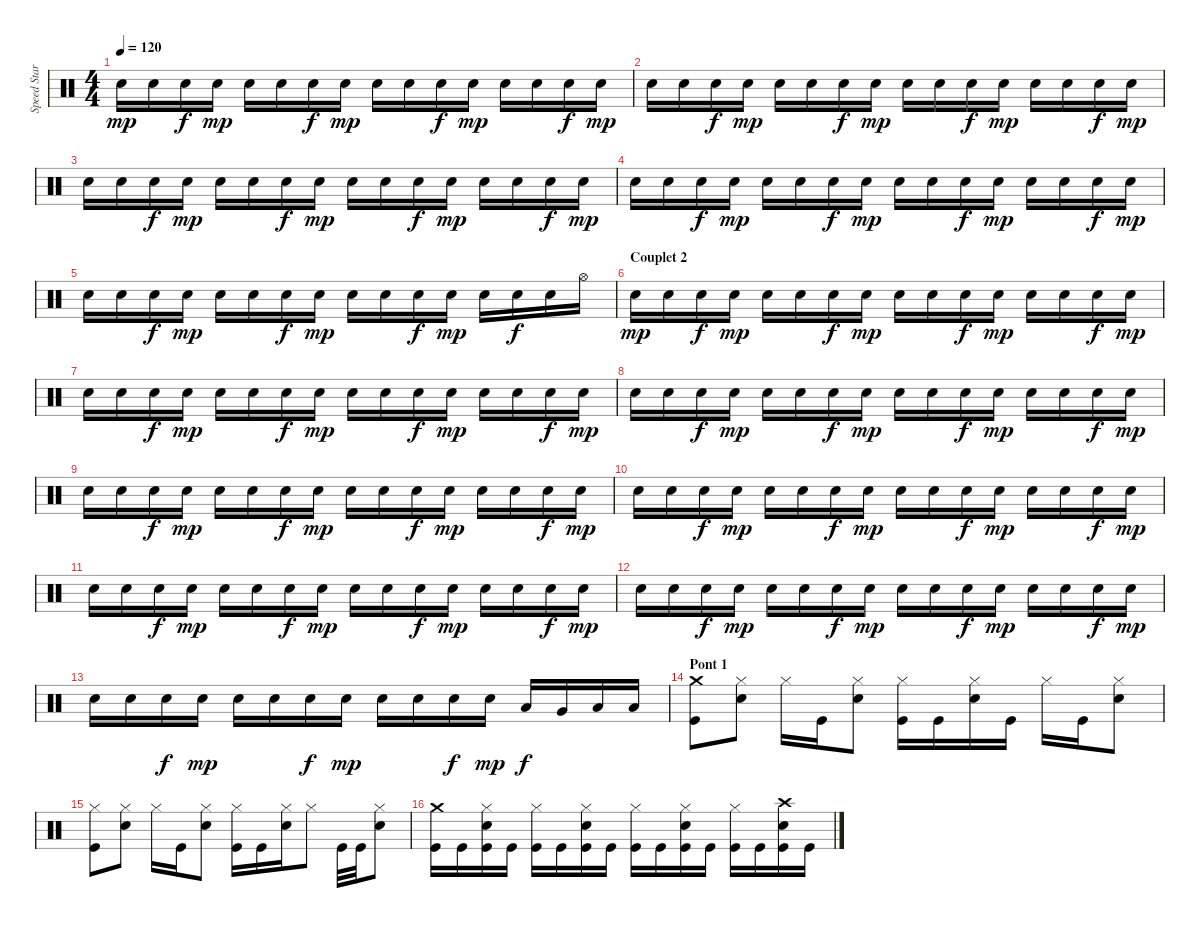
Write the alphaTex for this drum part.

\track ("Speed Star" "Speed Star") {instrument percussion}
\staff {score}
\articulation defaults
\ts (4 4)
\tempo 120
\clef neutral
\ks c "Snare (hit) 2".16{dy mp} "Snare (hit) 2".16 "Snare (hit) 2".16{dy f} "Snare (hit) 2".16{dy mp} "Snare (hit) 2".16 "Snare (hit) 2".16 "Snare (hit) 2".16{dy f} "Snare (hit) 2".16{dy mp} "Snare (hit) 2".16 "Snare (hit) 2".16 "Snare (hit) 2".16{dy f} "Snare (hit) 2".16{dy mp} "Snare (hit) 2".16 "Snare (hit) 2".16 "Snare (hit) 2".16{dy f} "Snare (hit) 2".16{dy mp}
|
"Snare (hit) 2".16 "Snare (hit) 2".16 "Snare (hit) 2".16{dy f} "Snare (hit) 2".16{dy mp} "Snare (hit) 2".16 "Snare (hit) 2".16 "Snare (hit) 2".16{dy f} "Snare (hit) 2".16{dy mp} "Snare (hit) 2".16 "Snare (hit) 2".16 "Snare (hit) 2".16{dy f} "Snare (hit) 2".16{dy mp} "Snare (hit) 2".16 "Snare (hit) 2".16 "Snare (hit) 2".16{dy f} "Snare (hit) 2".16{dy mp} |
"Snare (hit) 2".16 "Snare (hit) 2".16 "Snare (hit) 2".16{dy f} "Snare (hit) 2".16{dy mp} "Snare (hit) 2".16 "Snare (hit) 2".16 "Snare (hit) 2".16{dy f} "Snare (hit) 2".16{dy mp} "Snare (hit) 2".16 "Snare (hit) 2".16 "Snare (hit) 2".16{dy f} "Snare (hit) 2".16{dy mp} "Snare (hit) 2".16 "Snare (hit) 2".16 "Snare (hit) 2".16{dy f} "Snare (hit) 2".16{dy mp} |
"Snare (hit) 2".16 "Snare (hit) 2".16 "Snare (hit) 2".16{dy f} "Snare (hit) 2".16{dy mp} "Snare (hit) 2".16 "Snare (hit) 2".16 "Snare (hit) 2".16{dy f} "Snare (hit) 2".16{dy mp} "Snare (hit) 2".16 "Snare (hit) 2".16 "Snare (hit) 2".16{dy f} "Snare (hit) 2".16{dy mp} "Snare (hit) 2".16 "Snare (hit) 2".16 "Snare (hit) 2".16{dy f} "Snare (hit) 2".16{dy mp} |
"Snare (hit) 2".16 "Snare (hit) 2".16 "Snare (hit) 2".16{dy f} "Snare (hit) 2".16{dy mp} "Snare (hit) 2".16 "Snare (hit) 2".16 "Snare (hit) 2".16{dy f} "Snare (hit) 2".16{dy mp} "Snare (hit) 2".16 "Snare (hit) 2".16 "Snare (hit) 2".16{dy f} "Snare (hit) 2".16{dy mp} "Snare (hit) 2".16 "Snare (hit) 2".16{dy f} "Snare (hit) 2".16 "Hi-Hat (open)".16 |
\section ("" "Couplet 2")
"Snare (hit) 2".16{dy mp} "Snare (hit) 2".16 "Snare (hit) 2".16{dy f} "Snare (hit) 2".16{dy mp} "Snare (hit) 2".16 "Snare (hit) 2".16 "Snare (hit) 2".16{dy f} "Snare (hit) 2".16{dy mp} "Snare (hit) 2".16 "Snare (hit) 2".16 "Snare (hit) 2".16{dy f} "Snare (hit) 2".16{dy mp} "Snare (hit) 2".16 "Snare (hit) 2".16 "Snare (hit) 2".16{dy f} "Snare (hit) 2".16{dy mp} |
"Snare (hit) 2".16 "Snare (hit) 2".16 "Snare (hit) 2".16{dy f} "Snare (hit) 2".16{dy mp} "Snare (hit) 2".16 "Snare (hit) 2".16 "Snare (hit) 2".16{dy f} "Snare (hit) 2".16{dy mp} "Snare (hit) 2".16 "Snare (hit) 2".16 "Snare (hit) 2".16{dy f} "Snare (hit) 2".16{dy mp} "Snare (hit) 2".16 "Snare (hit) 2".16 "Snare (hit) 2".16{dy f} "Snare (hit) 2".16{dy mp} |
"Snare (hit) 2".16 "Snare (hit) 2".16 "Snare (hit) 2".16{dy f} "Snare (hit) 2".16{dy mp} "Snare (hit) 2".16 "Snare (hit) 2".16 "Snare (hit) 2".16{dy f} "Snare (hit) 2".16{dy mp} "Snare (hit) 2".16 "Snare (hit) 2".16 "Snare (hit) 2".16{dy f} "Snare (hit) 2".16{dy mp} "Snare (hit) 2".16 "Snare (hit) 2".16 "Snare (hit) 2".16{dy f} "Snare (hit) 2".16{dy mp} |
"Snare (hit) 2".16 "Snare (hit) 2".16 "Snare (hit) 2".16{dy f} "Snare (hit) 2".16{dy mp} "Snare (hit) 2".16 "Snare (hit) 2".16 "Snare (hit) 2".16{dy f} "Snare (hit) 2".16{dy mp} "Snare (hit) 2".16 "Snare (hit) 2".16 "Snare (hit) 2".16{dy f} "Snare (hit) 2".16{dy mp} "Snare (hit) 2".16 "Snare (hit) 2".16 "Snare (hit) 2".16{dy f} "Snare (hit) 2".16{dy mp} |
"Snare (hit) 2".16 "Snare (hit) 2".16 "Snare (hit) 2".16{dy f} "Snare (hit) 2".16{dy mp} "Snare (hit) 2".16 "Snare (hit) 2".16 "Snare (hit) 2".16{dy f} "Snare (hit) 2".16{dy mp} "Snare (hit) 2".16 "Snare (hit) 2".16 "Snare (hit) 2".16{dy f} "Snare (hit) 2".16{dy mp} "Snare (hit) 2".16 "Snare (hit) 2".16 "Snare (hit) 2".16{dy f} "Snare (hit) 2".16{dy mp} |
"Snare (hit) 2".16 "Snare (hit) 2".16 "Snare (hit) 2".16{dy f} "Snare (hit) 2".16{dy mp} "Snare (hit) 2".16 "Snare (hit) 2".16 "Snare (hit) 2".16{dy f} "Snare (hit) 2".16{dy mp} "Snare (hit) 2".16 "Snare (hit) 2".16 "Snare (hit) 2".16{dy f} "Snare (hit) 2".16{dy mp} "Snare (hit) 2".16 "Snare (hit) 2".16 "Snare (hit) 2".16{dy f} "Snare (hit) 2".16{dy mp} |
"Snare (hit) 2".16 "Snare (hit) 2".16 "Snare (hit) 2".16{dy f} "Snare (hit) 2".16{dy mp} "Snare (hit) 2".16 "Snare (hit) 2".16 "Snare (hit) 2".16{dy f} "Snare (hit) 2".16{dy mp} "Snare (hit) 2".16 "Snare (hit) 2".16 "Snare (hit) 2".16{dy f} "Snare (hit) 2".16{dy mp} "Snare (hit) 2".16 "Snare (hit) 2".16 "Snare (hit) 2".16{dy f} "Snare (hit) 2".16{dy mp} |
"Snare (hit) 2".16 "Snare (hit) 2".16 "Snare (hit) 2".16{dy f} "Snare (hit) 2".16{dy mp} "Snare (hit) 2".16 "Snare (hit) 2".16 "Snare (hit) 2".16{dy f} "Snare (hit) 2".16{dy mp} "Snare (hit) 2".16 "Snare (hit) 2".16 "Snare (hit) 2".16{dy f} "Snare (hit) 2".16{dy mp} "Low Floor Tom (hit)".16{dy f} "Very Low Tom (hit)".16 "Low Tom (hit)".16 "Low Tom (hit)".16 |
\section ("" "Pont 1")
("Kick (hit)" "Crash medium (hit)").8 ("Snare (hit) 2" "Hi-Hat (closed)").8 "Hi-Hat (closed)".16 "Kick (hit)".16 ("Snare (hit) 2" "Hi-Hat (closed)").8 ("Kick (hit)" "Hi-Hat (closed)").16 "Kick (hit)".16 ("Snare (hit) 2" "Hi-Hat (closed)").16 "Kick (hit)".16 "Hi-Hat (closed)".16 "Kick (hit)".16 ("Snare (hit) 2" "Hi-Hat (closed)").8 |
("Kick (hit)" "Hi-Hat (closed)").8 ("Snare (hit) 2" "Hi-Hat (closed)").8 "Hi-Hat (closed)".16 "Kick (hit)".16 ("Snare (hit) 2" "Hi-Hat (closed)").8 ("Kick (hit)" "Hi-Hat (closed)").16 "Kick (hit)".16 ("Snare (hit) 2" "Hi-Hat (closed)").16 "Hi-Hat (closed)".8 "Kick (hit)".32 "Kick (hit)".32 ("Snare (hit) 2" "Hi-Hat (closed)").8 |
("Kick (hit)" "Crash medium (hit)").16 "Kick (hit)".16 ("Kick (hit)" "Snare (hit) 2" "Hi-Hat (closed)").16 "Kick (hit)".16 ("Kick (hit)" "Hi-Hat (closed)").16 "Kick (hit)".16 ("Kick (hit)" "Snare (hit) 2" "Hi-Hat (closed)").16 "Kick (hit)".16 ("Kick (hit)" "Hi-Hat (closed)").16 "Kick (hit)".16 ("Kick (hit)" "Snare (hit) 2" "Hi-Hat (closed)").16 "Kick (hit)".16 ("Kick (hit)" "Hi-Hat (closed)").16 "Kick (hit)".16 ("Kick (hit)" "Snare (hit) 2" "Crash high (hit)").16 "Kick (hit)".16
